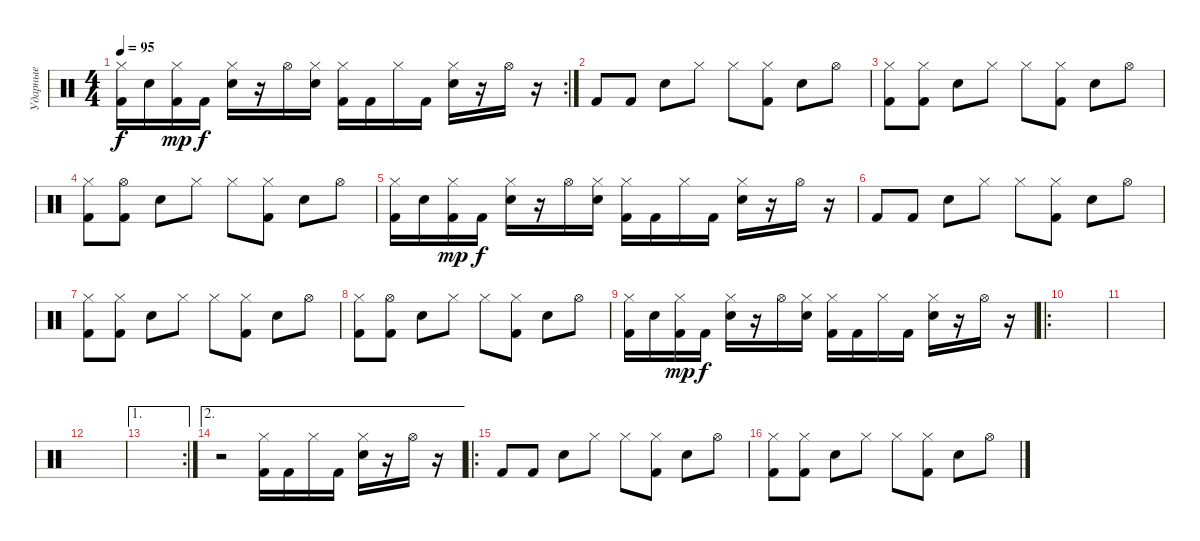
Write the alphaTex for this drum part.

\track ("Ударные" "Ударные") {instrument percussion}
\staff {score}
\articulation defaults
\rc 2
\ts (4 4)
\tempo 95
\clef neutral
\ks c
("Hi-Hat (closed)" "Kick (hit) 2").16{dy f} "Snare (hit) 2".16 ("Hi-Hat (closed)" "Kick (hit) 2").16{dy mp} "Kick (hit) 2".16{dy f} ("Hi-Hat (closed)" "Snare (hit) 2").16 r.16 "Hi-Hat (open)".16 ("Hi-Hat (closed)" "Snare (hit) 2").16 ("Hi-Hat (closed)" "Kick (hit) 2").16 "Kick (hit) 2".16 "Hi-Hat (closed)".16 "Kick (hit) 2".16 ("Hi-Hat (closed)" "Snare (hit) 2").16 r.16 "Hi-Hat (open)".16 r.16 |
"Kick (hit) 2".8 "Kick (hit) 2".8 "Snare (hit) 2".8 "Hi-Hat (closed)".8 "Hi-Hat (closed)".8 ("Hi-Hat (closed)" "Kick (hit) 2").8 "Snare (hit) 2".8 "Hi-Hat (open)".8 |
("Hi-Hat (closed)" "Kick (hit) 2").8 ("Hi-Hat (closed)" "Kick (hit) 2").8 "Snare (hit) 2".8 "Hi-Hat (closed)".8 "Hi-Hat (closed)".8 ("Hi-Hat (closed)" "Kick (hit) 2").8 "Snare (hit) 2".8 "Hi-Hat (open)".8 |
("Hi-Hat (closed)" "Kick (hit) 2").8 ("Hi-Hat (open)" "Kick (hit) 2").8 "Snare (hit) 2".8 "Hi-Hat (closed)".8 "Hi-Hat (closed)".8 ("Hi-Hat (closed)" "Kick (hit) 2").8 "Snare (hit) 2".8 "Hi-Hat (open)".8 |
("Hi-Hat (closed)" "Kick (hit) 2").16 "Snare (hit) 2".16 ("Hi-Hat (closed)" "Kick (hit) 2").16{dy mp} "Kick (hit) 2".16{dy f} ("Hi-Hat (closed)" "Snare (hit) 2").16 r.16 "Hi-Hat (open)".16 ("Hi-Hat (closed)" "Snare (hit) 2").16 ("Hi-Hat (closed)" "Kick (hit) 2").16 "Kick (hit) 2".16 "Hi-Hat (closed)".16 "Kick (hit) 2".16 ("Hi-Hat (closed)" "Snare (hit) 2").16 r.16 "Hi-Hat (open)".16 r.16 |
"Kick (hit) 2".8 "Kick (hit) 2".8 "Snare (hit) 2".8 "Hi-Hat (closed)".8 "Hi-Hat (closed)".8 ("Hi-Hat (closed)" "Kick (hit) 2").8 "Snare (hit) 2".8 "Hi-Hat (open)".8 |
("Hi-Hat (closed)" "Kick (hit) 2").8 ("Hi-Hat (closed)" "Kick (hit) 2").8 "Snare (hit) 2".8 "Hi-Hat (closed)".8 "Hi-Hat (closed)".8 ("Hi-Hat (closed)" "Kick (hit) 2").8 "Snare (hit) 2".8 "Hi-Hat (open)".8 |
("Hi-Hat (closed)" "Kick (hit) 2").8 ("Hi-Hat (open)" "Kick (hit) 2").8 "Snare (hit) 2".8 "Hi-Hat (closed)".8 "Hi-Hat (closed)".8 ("Hi-Hat (closed)" "Kick (hit) 2").8 "Snare (hit) 2".8 "Hi-Hat (open)".8 |
("Hi-Hat (closed)" "Kick (hit) 2").16 "Snare (hit) 2".16 ("Hi-Hat (closed)" "Kick (hit) 2").16{dy mp} "Kick (hit) 2".16{dy f} ("Hi-Hat (closed)" "Snare (hit) 2").16 r.16 "Hi-Hat (open)".16 ("Hi-Hat (closed)" "Snare (hit) 2").16 ("Hi-Hat (closed)" "Kick (hit) 2").16 "Kick (hit) 2".16 "Hi-Hat (closed)".16 "Kick (hit) 2".16 ("Hi-Hat (closed)" "Snare (hit) 2").16 r.16 "Hi-Hat (open)".16 r.16 |
\ro
|
|
|
\ae 1
\rc 2
|
\ae 2
r.2 ("Hi-Hat (closed)" "Kick (hit) 2").16 "Kick (hit) 2".16 "Hi-Hat (closed)".16 "Kick (hit) 2".16 ("Hi-Hat (closed)" "Snare (hit) 2").16 r.16 "Hi-Hat (open)".16 r.16 |
\ro "Kick (hit) 2".8 "Kick (hit) 2".8 "Snare (hit) 2".8 "Hi-Hat (closed)".8 "Hi-Hat (closed)".8
("Hi-Hat (closed)" "Kick (hit) 2").8 "Snare (hit) 2".8 "Hi-Hat (open)".8 |
("Hi-Hat (closed)" "Kick (hit) 2").8 ("Hi-Hat (closed)" "Kick (hit) 2").8 "Snare (hit) 2".8 "Hi-Hat (closed)".8 "Hi-Hat (closed)".8 ("Hi-Hat (closed)" "Kick (hit) 2").8 "Snare (hit) 2".8 "Hi-Hat (open)".8
